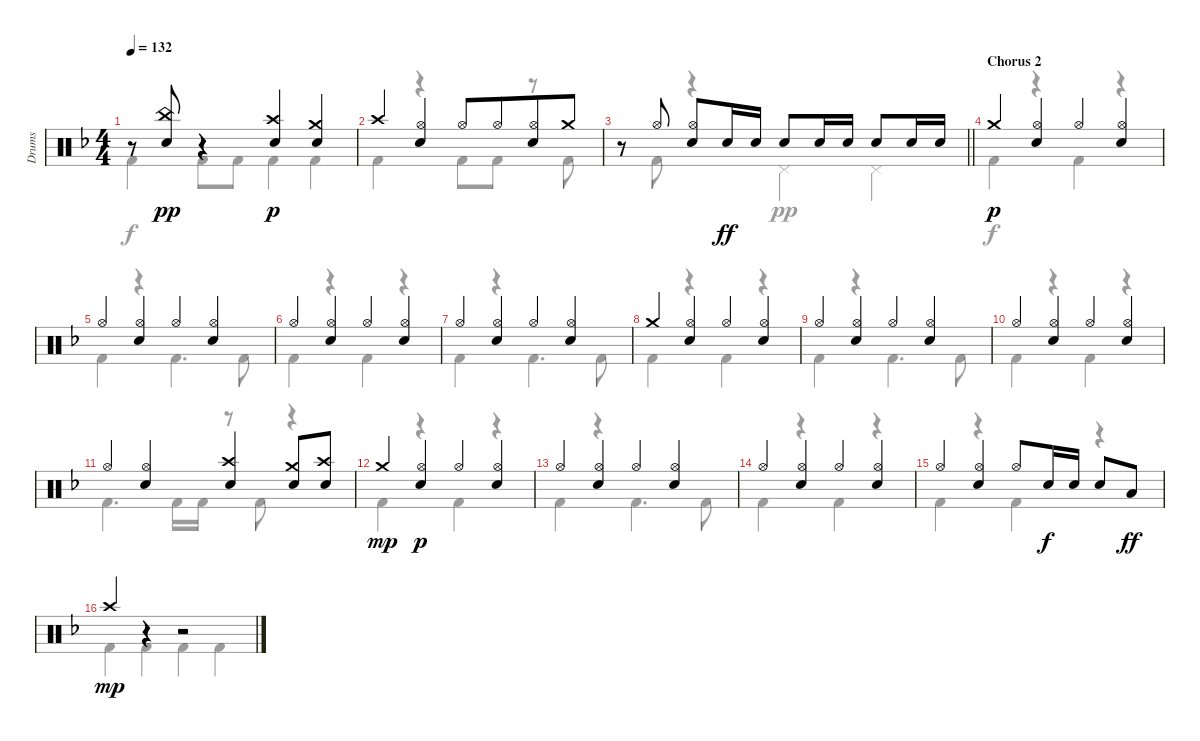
\track ("Drums" "Drums") {instrument percussion}
\staff {score}
\articulation defaults
\voice
\ts (4 4)
\tempo 132
\clef neutral
\ks f
r.8{dy p} ("China (hit)" "Electric Snare (hit)").8{dy pp} r.4 ("Electric Snare (hit)" "Crash high (hit)").4{dy p} ("Electric Snare (hit)" "Crash medium (hit)").4 |
"Crash high (hit)".4 ("Electric Snare (hit)" "Hi-Hat (open)").4 "Hi-Hat (open)".8 "Hi-Hat (open)".8{beam merge} ("Hi-Hat (open)" "Electric Snare (hit)").8 "Crash medium (hit)".8 |
\barLineRight lightlight
r.8 "Hi-Hat (open)".8 ("Hi-Hat (open)" "Electric Snare (hit)").8 "Electric Snare (hit)".16{dy ff} "Electric Snare (hit)".16 "Electric Snare (hit)".8 "Electric Snare (hit)".16 "Electric Snare (hit)".16 "Electric Snare (hit)".8 "Electric Snare (hit)".16 "Electric Snare (hit)".16 |
\section ("" "Chorus 2")
"Crash medium (hit)".4{dy p} ("Hi-Hat (open)" "Electric Snare (hit)").4 "Hi-Hat (open)".4 ("Hi-Hat (open)" "Electric Snare (hit)").4 |
"Hi-Hat (open)".4 ("Hi-Hat (open)" "Electric Snare (hit)").4 "Hi-Hat (open)".4 ("Hi-Hat (open)" "Electric Snare (hit)").4 |
"Hi-Hat (open)".4 ("Hi-Hat (open)" "Electric Snare (hit)").4 "Hi-Hat (open)".4 ("Hi-Hat (open)" "Electric Snare (hit)").4 |
"Hi-Hat (open)".4 ("Hi-Hat (open)" "Electric Snare (hit)").4 "Hi-Hat (open)".4 ("Hi-Hat (open)" "Electric Snare (hit)").4 |
"Crash medium (hit)".4 ("Hi-Hat (open)" "Electric Snare (hit)").4 "Hi-Hat (open)".4 ("Hi-Hat (open)" "Electric Snare (hit)").4 |
"Hi-Hat (open)".4 ("Hi-Hat (open)" "Electric Snare (hit)").4 "Hi-Hat (open)".4 ("Hi-Hat (open)" "Electric Snare (hit)").4 |
"Hi-Hat (open)".4 ("Hi-Hat (open)" "Electric Snare (hit)").4 "Hi-Hat (open)".4 ("Hi-Hat (open)" "Electric Snare (hit)").4 |
"Hi-Hat (open)".4 ("Hi-Hat (open)" "Electric Snare (hit)").4 ("Crash high (hit)" "Electric Snare (hit)").4 ("Crash medium (hit)" "Electric Snare (hit)").8 ("Crash high (hit)" "Electric Snare (hit)").8 |
"Crash medium (hit)".4{dy mp} ("Hi-Hat (open)" "Electric Snare (hit)").4{dy p} "Hi-Hat (open)".4 ("Hi-Hat (open)" "Electric Snare (hit)").4 |
"Hi-Hat (open)".4 ("Hi-Hat (open)" "Electric Snare (hit)").4 "Hi-Hat (open)".4 ("Hi-Hat (open)" "Electric Snare (hit)").4 |
"Hi-Hat (open)".4 ("Hi-Hat (open)" "Electric Snare (hit)").4 "Hi-Hat (open)".4 ("Hi-Hat (open)" "Electric Snare (hit)").4 |
"Hi-Hat (open)".4 ("Hi-Hat (open)" "Electric Snare (hit)").4 "Hi-Hat (open)".8 "Electric Snare (hit)".16{dy f} "Electric Snare (hit)".16 "Electric Snare (hit)".8 "Low Tom (hit)".8{dy ff} |
"Crash high (hit)".4{dy mp} r.4 r.2
\voice
\clef neutral
\ottava regular
\simile none
\ks f "Kick (hit) 2".4{dy f} "Kick (hit) 2".8 "Kick (hit) 2".8 "Kick (hit) 2".4 "Kick (hit) 2".4
|
"Kick (hit) 2".4 r.4 "Kick (hit) 2".8 "Kick (hit) 2".8 r.8 "Kick (hit) 2".8 |
\barLineRight lightlight
r.8 "Kick (hit) 2".8 r.4 "Pedal Hi-Hat (hit)".4{dy pp} "Pedal Hi-Hat (hit)".4 |
"Kick (hit) 2".4{dy f} r.4 "Kick (hit) 2".4 r.4 |
"Kick (hit) 2".4 r.4 "Kick (hit) 2".4{d} "Kick (hit) 2".8 |
"Kick (hit) 2".4 r.4 "Kick (hit) 2".4 r.4 |
"Kick (hit) 2".4 r.4 "Kick (hit) 2".4{d} "Kick (hit) 2".8 |
"Kick (hit) 2".4 r.4 "Kick (hit) 2".4 r.4 |
"Kick (hit) 2".4 r.4 "Kick (hit) 2".4{d} "Kick (hit) 2".8 |
"Kick (hit) 2".4 r.4 "Kick (hit) 2".4 r.4 |
"Kick (hit) 2".4{d} "Kick (hit) 2".16 "Kick (hit) 2".16 r.8 "Kick (hit) 2".8 r.4 |
"Kick (hit) 2".4 r.4 "Kick (hit) 2".4 r.4 |
"Kick (hit) 2".4 r.4 "Kick (hit) 2".4{d} "Kick (hit) 2".8 |
"Kick (hit) 2".4 r.4 "Kick (hit) 2".4 r.4 |
"Kick (hit) 2".4 r.4 "Kick (hit) 2".4 r.4 |
"Kick (hit) 2".4 "Kick (hit) 2".4 "Kick (hit) 2".4 "Kick (hit) 2".4
